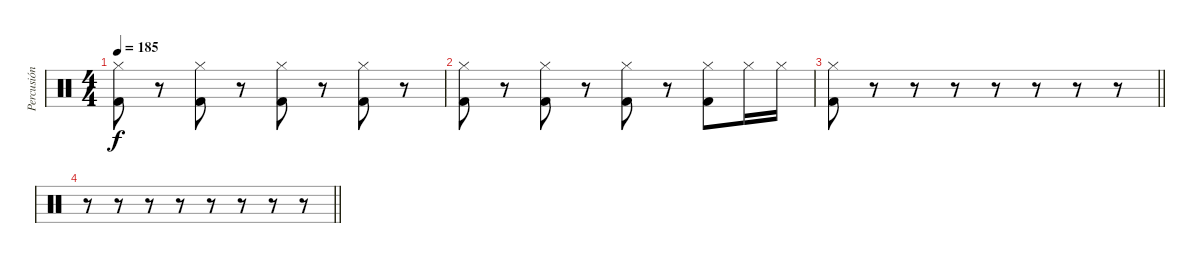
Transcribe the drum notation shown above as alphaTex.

\track ("Percusión" "Percusión") {instrument percussion}
\staff {score}
\articulation defaults
\ts (4 4)
\tempo 185
\clef neutral
\ks c
("Hi-Hat (closed)" "Kick (hit) 2").8{dy f} r.8 ("Hi-Hat (closed)" "Kick (hit) 2").8 r.8 ("Hi-Hat (closed)" "Kick (hit) 2").8 r.8 ("Hi-Hat (closed)" "Kick (hit) 2").8 r.8 |
("Hi-Hat (closed)" "Kick (hit) 2").8 r.8 ("Hi-Hat (closed)" "Kick (hit) 2").8 r.8 ("Hi-Hat (closed)" "Kick (hit) 2").8 r.8 ("Hi-Hat (closed)" "Kick (hit) 2").8 "Hi-Hat (closed)".16 "Hi-Hat (closed)".16 |
\barLineRight lightlight
("Hi-Hat (closed)" "Kick (hit) 2").8 r.8 r.8 r.8 r.8 r.8 r.8 r.8 |
\barLineRight lightlight
r.8 r.8 r.8 r.8 r.8 r.8 r.8 r.8
